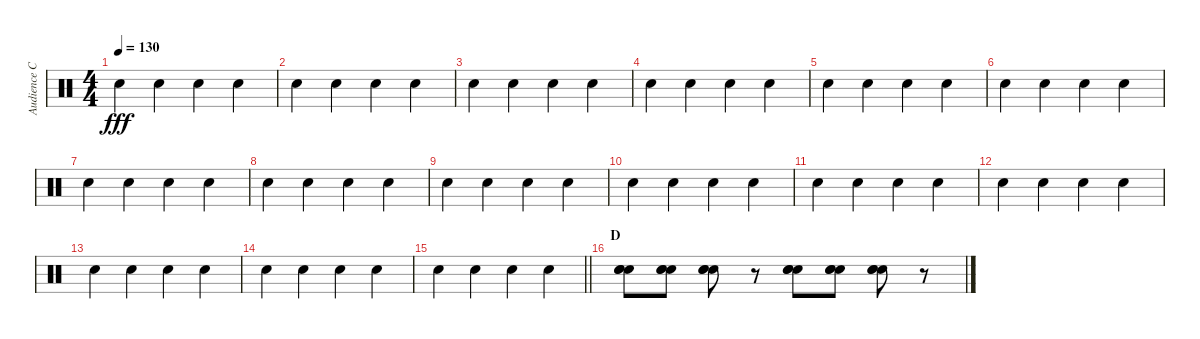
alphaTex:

\track ("Audience Claps" "Audience C") {instrument percussion}
\staff {score}
\articulation defaults
\ts (4 4)
\tempo 130
\clef neutral
\ks c "Hand Clap (hit)".4{dy fff} "Hand Clap (hit)".4 "Hand Clap (hit)".4 "Hand Clap (hit)".4
|
"Hand Clap (hit)".4 "Hand Clap (hit)".4 "Hand Clap (hit)".4 "Hand Clap (hit)".4 |
"Hand Clap (hit)".4 "Hand Clap (hit)".4 "Hand Clap (hit)".4 "Hand Clap (hit)".4 |
"Hand Clap (hit)".4 "Hand Clap (hit)".4 "Hand Clap (hit)".4 "Hand Clap (hit)".4 |
"Hand Clap (hit)".4 "Hand Clap (hit)".4 "Hand Clap (hit)".4 "Hand Clap (hit)".4 |
"Hand Clap (hit)".4 "Hand Clap (hit)".4 "Hand Clap (hit)".4 "Hand Clap (hit)".4 |
"Hand Clap (hit)".4 "Hand Clap (hit)".4 "Hand Clap (hit)".4 "Hand Clap (hit)".4 |
"Hand Clap (hit)".4 "Hand Clap (hit)".4 "Hand Clap (hit)".4 "Hand Clap (hit)".4 |
"Hand Clap (hit)".4 "Hand Clap (hit)".4 "Hand Clap (hit)".4 "Hand Clap (hit)".4 |
"Hand Clap (hit)".4 "Hand Clap (hit)".4 "Hand Clap (hit)".4 "Hand Clap (hit)".4 |
"Hand Clap (hit)".4 "Hand Clap (hit)".4 "Hand Clap (hit)".4 "Hand Clap (hit)".4 |
"Hand Clap (hit)".4 "Hand Clap (hit)".4 "Hand Clap (hit)".4 "Hand Clap (hit)".4 |
"Hand Clap (hit)".4 "Hand Clap (hit)".4 "Hand Clap (hit)".4 "Hand Clap (hit)".4 |
"Hand Clap (hit)".4 "Hand Clap (hit)".4 "Hand Clap (hit)".4 "Hand Clap (hit)".4 |
\barLineRight lightlight "Hand Clap (hit)".4 "Hand Clap (hit)".4 "Hand Clap (hit)".4 "Hand Clap (hit)".4
|
\section ("" "D")
("Hand Clap (hit)" "Hand Clap (hit)" "Hand Clap (hit)").8{bd 60} ("Hand Clap (hit)" "Hand Clap (hit)" "Hand Clap (hit)").8{bd 60} ("Hand Clap (hit)" "Hand Clap (hit)" "Hand Clap (hit)").8{bd 60} r.8 ("Hand Clap (hit)" "Hand Clap (hit)" "Hand Clap (hit)").8{bd 60} ("Hand Clap (hit)" "Hand Clap (hit)" "Hand Clap (hit)").8{bd 60} ("Hand Clap (hit)" "Hand Clap (hit)" "Hand Clap (hit)").8{bd 60} r.8
